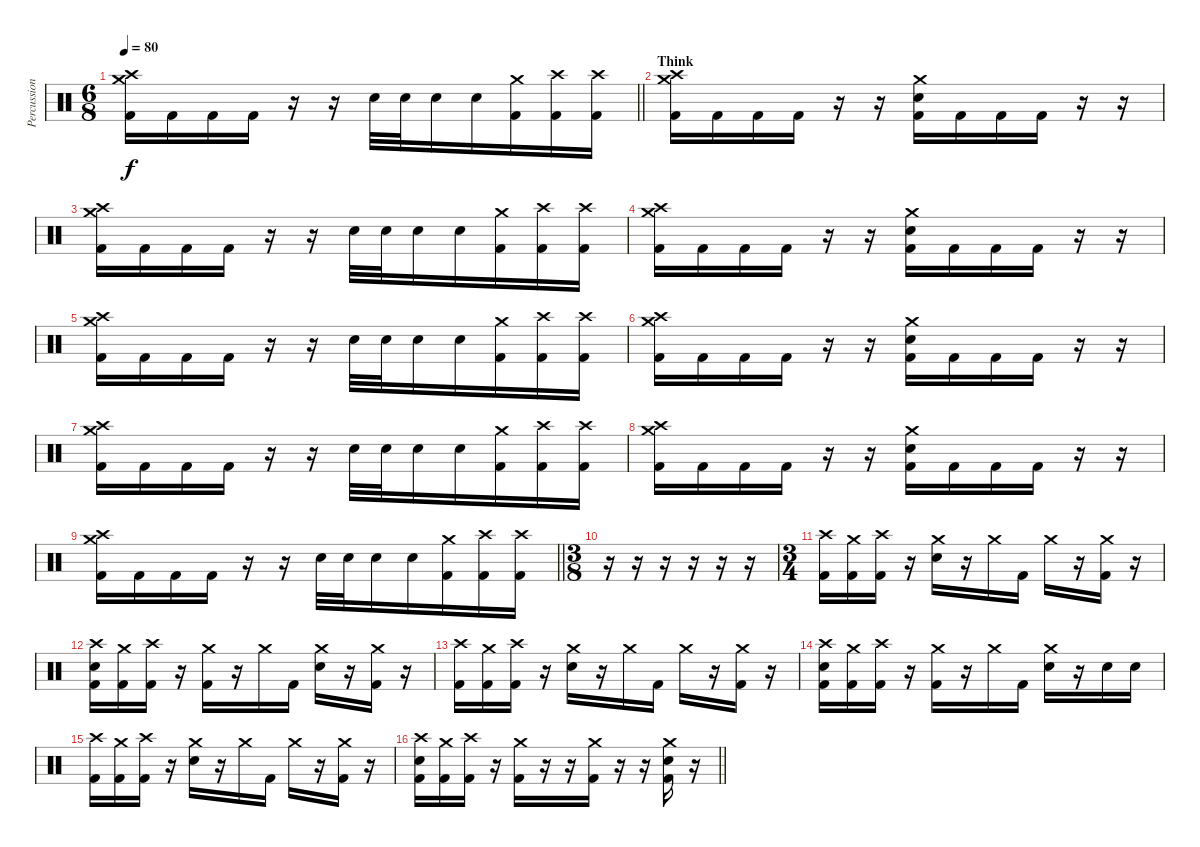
\track ("Percussion" "Percussion") {instrument percussion}
\staff {score}
\articulation defaults
\ts (6 8)
\tempo 80
\clef neutral
\barLineRight lightlight
\ks c
("Crash high (hit)" "Crash medium (hit)" "Kick (hit) 2").16{dy f} "Kick (hit) 2".16 "Kick (hit) 2".16 "Kick (hit) 2".16 r.16 r.16 "Snare (hit) 2".32 "Snare (hit) 2".32 "Snare (hit) 2".16 "Snare (hit) 2".16 ("Crash medium (hit)" "Kick (hit) 2").16 ("Crash high (hit)" "Kick (hit) 2").16 ("Crash high (hit)" "Kick (hit) 2").16 |
\section ("" "Think")
("Crash high (hit)" "Crash medium (hit)" "Kick (hit) 2").16 "Kick (hit) 2".16 "Kick (hit) 2".16 "Kick (hit) 2".16 r.16 r.16 ("Crash medium (hit)" "Snare (hit) 2" "Kick (hit) 2").16 "Kick (hit) 2".16 "Kick (hit) 2".16 "Kick (hit) 2".16 r.16 r.16 |
("Crash high (hit)" "Crash medium (hit)" "Kick (hit) 2").16 "Kick (hit) 2".16 "Kick (hit) 2".16 "Kick (hit) 2".16 r.16 r.16 "Snare (hit) 2".32 "Snare (hit) 2".32 "Snare (hit) 2".16 "Snare (hit) 2".16 ("Crash medium (hit)" "Kick (hit) 2").16 ("Crash high (hit)" "Kick (hit) 2").16 ("Crash high (hit)" "Kick (hit) 2").16 |
("Crash high (hit)" "Crash medium (hit)" "Kick (hit) 2").16 "Kick (hit) 2".16 "Kick (hit) 2".16 "Kick (hit) 2".16 r.16 r.16 ("Crash medium (hit)" "Snare (hit) 2" "Kick (hit) 2").16 "Kick (hit) 2".16 "Kick (hit) 2".16 "Kick (hit) 2".16 r.16 r.16 |
("Crash high (hit)" "Crash medium (hit)" "Kick (hit) 2").16 "Kick (hit) 2".16 "Kick (hit) 2".16 "Kick (hit) 2".16 r.16 r.16 "Snare (hit) 2".32 "Snare (hit) 2".32 "Snare (hit) 2".16 "Snare (hit) 2".16 ("Crash medium (hit)" "Kick (hit) 2").16 ("Crash high (hit)" "Kick (hit) 2").16 ("Crash high (hit)" "Kick (hit) 2").16 |
("Crash high (hit)" "Crash medium (hit)" "Kick (hit) 2").16 "Kick (hit) 2".16 "Kick (hit) 2".16 "Kick (hit) 2".16 r.16 r.16 ("Crash medium (hit)" "Snare (hit) 2" "Kick (hit) 2").16 "Kick (hit) 2".16 "Kick (hit) 2".16 "Kick (hit) 2".16 r.16 r.16 |
("Crash high (hit)" "Crash medium (hit)" "Kick (hit) 2").16 "Kick (hit) 2".16 "Kick (hit) 2".16 "Kick (hit) 2".16 r.16 r.16 "Snare (hit) 2".32 "Snare (hit) 2".32 "Snare (hit) 2".16 "Snare (hit) 2".16 ("Crash medium (hit)" "Kick (hit) 2").16 ("Crash high (hit)" "Kick (hit) 2").16 ("Crash high (hit)" "Kick (hit) 2").16 |
("Crash high (hit)" "Crash medium (hit)" "Kick (hit) 2").16 "Kick (hit) 2".16 "Kick (hit) 2".16 "Kick (hit) 2".16 r.16 r.16 ("Crash medium (hit)" "Snare (hit) 2" "Kick (hit) 2").16 "Kick (hit) 2".16 "Kick (hit) 2".16 "Kick (hit) 2".16 r.16 r.16 |
\barLineRight lightlight
("Crash high (hit)" "Crash medium (hit)" "Kick (hit) 2").16 "Kick (hit) 2".16 "Kick (hit) 2".16 "Kick (hit) 2".16 r.16 r.16 "Snare (hit) 2".32 "Snare (hit) 2".32 "Snare (hit) 2".16 "Snare (hit) 2".16 ("Crash medium (hit)" "Kick (hit) 2").16 ("Crash high (hit)" "Kick (hit) 2").16 ("Crash high (hit)" "Kick (hit) 2").16 |
\ts (3 8)
r.16 r.16 r.16 r.16 r.16 r.16 |
\ts (3 4)
("Crash high (hit)" "Kick (hit) 2").16 ("Crash medium (hit)" "Kick (hit) 2").16 ("Crash high (hit)" "Kick (hit) 2").16 r.16 ("Crash medium (hit)" "Snare (hit) 2").16 r.16 "Crash medium (hit)".16 "Kick (hit) 2".16 "Crash medium (hit)".16 r.16 ("Crash medium (hit)" "Kick (hit) 2").16 r.16 |
("Crash high (hit)" "Snare (hit) 2" "Kick (hit) 2").16 ("Crash medium (hit)" "Kick (hit) 2").16 ("Crash high (hit)" "Kick (hit) 2").16 r.16 ("Crash medium (hit)" "Kick (hit) 2").16 r.16 "Crash medium (hit)".16 "Kick (hit) 2".16 ("Crash medium (hit)" "Snare (hit) 2").16 r.16 ("Crash medium (hit)" "Kick (hit) 2").16 r.16 |
("Crash high (hit)" "Kick (hit) 2").16 ("Crash medium (hit)" "Kick (hit) 2").16 ("Crash high (hit)" "Kick (hit) 2").16 r.16 ("Crash medium (hit)" "Snare (hit) 2").16 r.16 "Crash medium (hit)".16 "Kick (hit) 2".16 "Crash medium (hit)".16 r.16 ("Crash medium (hit)" "Kick (hit) 2").16 r.16 |
("Crash high (hit)" "Snare (hit) 2" "Kick (hit) 2").16 ("Crash medium (hit)" "Kick (hit) 2").16 ("Crash high (hit)" "Kick (hit) 2").16 r.16 ("Crash medium (hit)" "Kick (hit) 2").16 r.16 "Crash medium (hit)".16 "Kick (hit) 2".16 ("Crash medium (hit)" "Snare (hit) 2").16 r.16 "Snare (hit) 2".16 "Snare (hit) 2".16 |
("Crash high (hit)" "Kick (hit) 2").16 ("Crash medium (hit)" "Kick (hit) 2").16 ("Crash high (hit)" "Kick (hit) 2").16 r.16 ("Crash medium (hit)" "Snare (hit) 2").16 r.16 "Crash medium (hit)".16 "Kick (hit) 2".16 "Crash medium (hit)".16 r.16 ("Crash medium (hit)" "Kick (hit) 2").16 r.16 |
\barLineRight lightlight
("Crash high (hit)" "Snare (hit) 2" "Kick (hit) 2").16 ("Crash medium (hit)" "Kick (hit) 2").16 ("Crash high (hit)" "Kick (hit) 2").16 r.16 ("Crash medium (hit)" "Kick (hit) 2").16 r.16 r.16 ("Crash medium (hit)" "Kick (hit) 2").16 r.16 r.16 ("Crash medium (hit)" "Snare (hit) 2" "Kick (hit) 2").16 r.16
